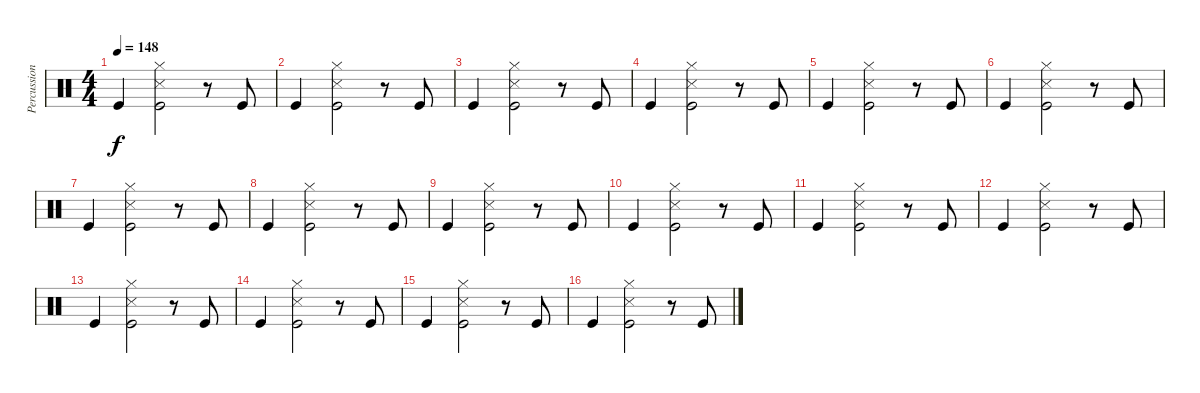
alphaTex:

\track ("Percussion" "Percussion") {instrument percussion}
\staff {score}
\articulation defaults
\ts (4 4)
\tempo 148
\clef neutral
\ks c "Kick (hit)".4{dy f}
("Snare (side stick) 3" "Hi-Hat (closed)" "Kick (hit)").2 r.8 "Kick (hit)".8 |
"Kick (hit)".4 ("Snare (side stick) 3" "Hi-Hat (closed)" "Kick (hit)").2 r.8 "Kick (hit)".8 |
"Kick (hit)".4 ("Snare (side stick) 3" "Hi-Hat (closed)" "Kick (hit)").2 r.8 "Kick (hit)".8 |
"Kick (hit)".4 ("Snare (side stick) 3" "Hi-Hat (closed)" "Kick (hit)").2 r.8 "Kick (hit)".8 |
"Kick (hit)".4 ("Snare (side stick) 3" "Hi-Hat (closed)" "Kick (hit)").2 r.8 "Kick (hit)".8 |
"Kick (hit)".4 ("Snare (side stick) 3" "Hi-Hat (closed)" "Kick (hit)").2 r.8 "Kick (hit)".8 |
"Kick (hit)".4 ("Snare (side stick) 3" "Hi-Hat (closed)" "Kick (hit)").2 r.8 "Kick (hit)".8 |
"Kick (hit)".4 ("Snare (side stick) 3" "Hi-Hat (closed)" "Kick (hit)").2 r.8 "Kick (hit)".8 |
"Kick (hit)".4 ("Snare (side stick) 3" "Hi-Hat (closed)" "Kick (hit)").2 r.8 "Kick (hit)".8 |
"Kick (hit)".4 ("Snare (side stick) 3" "Hi-Hat (closed)" "Kick (hit)").2 r.8 "Kick (hit)".8 |
"Kick (hit)".4 ("Snare (side stick) 3" "Hi-Hat (closed)" "Kick (hit)").2 r.8 "Kick (hit)".8 |
"Kick (hit)".4 ("Snare (side stick) 3" "Hi-Hat (closed)" "Kick (hit)").2 r.8 "Kick (hit)".8 |
"Kick (hit)".4 ("Snare (side stick) 3" "Hi-Hat (closed)" "Kick (hit)").2 r.8 "Kick (hit)".8 |
"Kick (hit)".4 ("Snare (side stick) 3" "Hi-Hat (closed)" "Kick (hit)").2 r.8 "Kick (hit)".8 |
"Kick (hit)".4 ("Snare (side stick) 3" "Hi-Hat (closed)" "Kick (hit)").2 r.8 "Kick (hit)".8 |
"Kick (hit)".4 ("Snare (side stick) 3" "Hi-Hat (closed)" "Kick (hit)").2 r.8 "Kick (hit)".8
